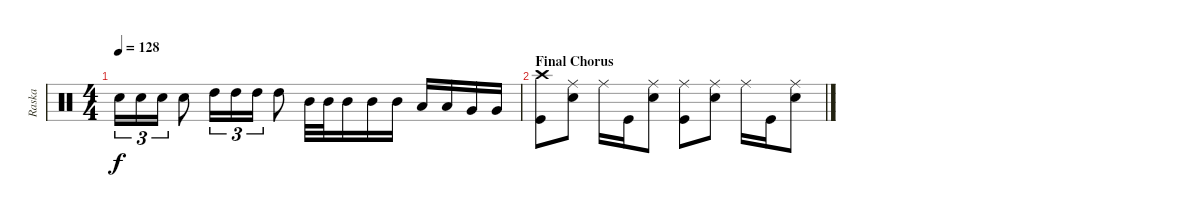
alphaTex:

\track ("Raska" "Raska") {instrument percussion}
\staff {score}
\articulation defaults
\ts (4 4)
\tempo 128
\clef neutral
\ks c "Electric Snare (hit)".16{tu (3 2) dy f} "Electric Snare (hit)".16{tu (3 2)} "Electric Snare (hit)".16{tu (3 2)} "Electric Snare (hit)".8 "High Tom (hit)".16{tu (3 2)} "High Tom (hit)".16{tu (3 2)} "High Tom (hit)".16{tu (3 2)} "High Tom (hit)".8 "Mid Tom (hit)".32 "Mid Tom (hit)".32 "Mid Tom (hit)".16 "Mid Tom (hit)".16 "Mid Tom (hit)".16 "Low Tom (hit)".16 "Low Tom (hit)".16 "Very Low Tom (hit)".16 "Very Low Tom (hit)".16
|
\section ("" "Final Chorus")
("Crash high (hit)" "Kick (hit)").8 ("Ride (middle)" "Electric Snare (hit)").8 "Ride (middle)".16 "Kick (hit)".16 ("Ride (middle)" "Electric Snare (hit)").8 ("Ride (middle)" "Kick (hit)").8 ("Ride (middle)" "Electric Snare (hit)").8 "Ride (middle)".16 "Kick (hit)".16 ("Ride (middle)" "Electric Snare (hit)").8
